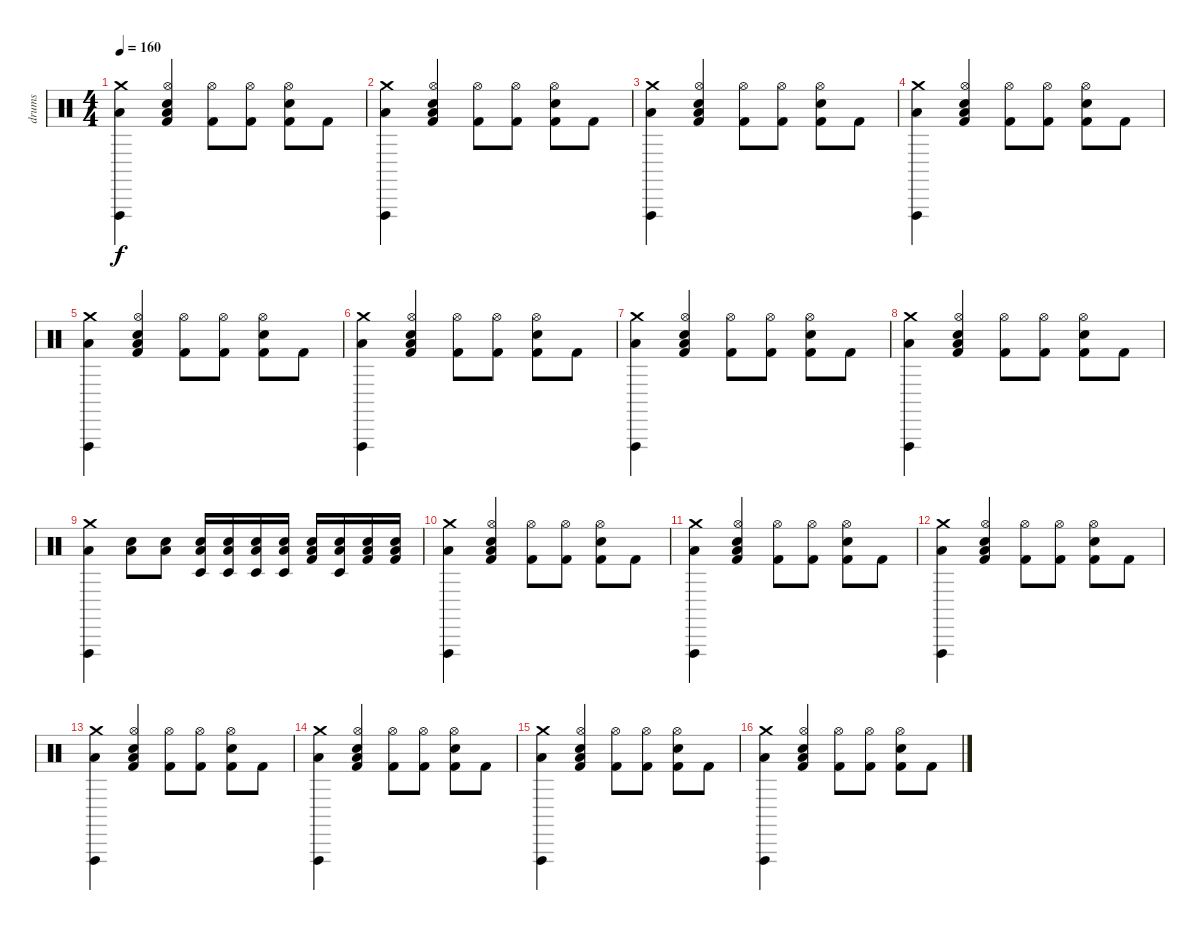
\track ("drums" "drums") {instrument percussion}
\staff {score}
\articulation defaults
\ts (4 4)
\tempo 160
\clef neutral
\ks c
("Crash medium (hit)" "Vibraslap (hit)" "Low Floor Tom (hit)").4{dy f} ("Hi-Hat (open)" "Electric Snare (hit)" "Low Floor Tom (hit)" "Kick (hit) 2").4 ("Hi-Hat (open)" "Kick (hit) 2").8 ("Hi-Hat (open)" "Kick (hit) 2").8 ("Hi-Hat (open)" "Electric Snare (hit)" "Kick (hit) 2").8 "Kick (hit) 2".8 |
("Crash medium (hit)" "Vibraslap (hit)" "Low Floor Tom (hit)").4 ("Hi-Hat (open)" "Electric Snare (hit)" "Low Floor Tom (hit)" "Kick (hit) 2").4 ("Hi-Hat (open)" "Kick (hit) 2").8 ("Hi-Hat (open)" "Kick (hit) 2").8 ("Hi-Hat (open)" "Electric Snare (hit)" "Kick (hit) 2").8 "Kick (hit) 2".8 |
("Crash medium (hit)" "Vibraslap (hit)" "Low Floor Tom (hit)").4 ("Hi-Hat (open)" "Electric Snare (hit)" "Low Floor Tom (hit)" "Kick (hit) 2").4 ("Hi-Hat (open)" "Kick (hit) 2").8 ("Hi-Hat (open)" "Kick (hit) 2").8 ("Hi-Hat (open)" "Electric Snare (hit)" "Kick (hit) 2").8 "Kick (hit) 2".8 |
("Crash medium (hit)" "Vibraslap (hit)" "Low Floor Tom (hit)").4 ("Hi-Hat (open)" "Electric Snare (hit)" "Low Floor Tom (hit)" "Kick (hit) 2").4 ("Hi-Hat (open)" "Kick (hit) 2").8 ("Hi-Hat (open)" "Kick (hit) 2").8 ("Hi-Hat (open)" "Electric Snare (hit)" "Kick (hit) 2").8 "Kick (hit) 2".8 |
("Crash medium (hit)" "Vibraslap (hit)" "Low Floor Tom (hit)").4 ("Hi-Hat (open)" "Electric Snare (hit)" "Low Floor Tom (hit)" "Kick (hit) 2").4 ("Hi-Hat (open)" "Kick (hit) 2").8 ("Hi-Hat (open)" "Kick (hit) 2").8 ("Hi-Hat (open)" "Electric Snare (hit)" "Kick (hit) 2").8 "Kick (hit) 2".8 |
("Crash medium (hit)" "Vibraslap (hit)" "Low Floor Tom (hit)").4 ("Hi-Hat (open)" "Electric Snare (hit)" "Low Floor Tom (hit)" "Kick (hit) 2").4 ("Hi-Hat (open)" "Kick (hit) 2").8 ("Hi-Hat (open)" "Kick (hit) 2").8 ("Hi-Hat (open)" "Electric Snare (hit)" "Kick (hit) 2").8 "Kick (hit) 2".8 |
("Crash medium (hit)" "Vibraslap (hit)" "Low Floor Tom (hit)").4 ("Hi-Hat (open)" "Electric Snare (hit)" "Low Floor Tom (hit)" "Kick (hit) 2").4 ("Hi-Hat (open)" "Kick (hit) 2").8 ("Hi-Hat (open)" "Kick (hit) 2").8 ("Hi-Hat (open)" "Electric Snare (hit)" "Kick (hit) 2").8 "Kick (hit) 2".8 |
("Crash medium (hit)" "Vibraslap (hit)" "Low Floor Tom (hit)").4 ("Hi-Hat (open)" "Electric Snare (hit)" "Low Floor Tom (hit)" "Kick (hit) 2").4 ("Hi-Hat (open)" "Kick (hit) 2").8 ("Hi-Hat (open)" "Kick (hit) 2").8 ("Hi-Hat (open)" "Electric Snare (hit)" "Kick (hit) 2").8 "Kick (hit) 2".8 |
("Crash medium (hit)" "Vibraslap (hit)" "Low Floor Tom (hit)").4 ("Electric Snare (hit)" "Low Floor Tom (hit)").8 ("Electric Snare (hit)" "Low Floor Tom (hit)").8 ("Electric Snare (hit)" "Low Floor Tom (hit)" "Timbale low (hit)").16 ("Electric Snare (hit)" "Low Floor Tom (hit)" "Timbale low (hit)").16 ("Electric Snare (hit)" "Low Floor Tom (hit)" "Timbale low (hit)").16 ("Electric Snare (hit)" "Low Floor Tom (hit)" "Timbale low (hit)").16 ("Electric Snare (hit)" "Low Floor Tom (hit)" "Kick (hit) 2").16 ("Electric Snare (hit)" "Low Floor Tom (hit)" "Timbale low (hit)").16 ("Electric Snare (hit)" "Low Floor Tom (hit)" "Kick (hit) 2").16 ("Electric Snare (hit)" "Low Floor Tom (hit)" "Kick (hit) 2").16 |
("Crash medium (hit)" "Vibraslap (hit)" "Low Floor Tom (hit)").4 ("Hi-Hat (open)" "Electric Snare (hit)" "Low Floor Tom (hit)" "Kick (hit) 2").4 ("Hi-Hat (open)" "Kick (hit) 2").8 ("Hi-Hat (open)" "Kick (hit) 2").8 ("Hi-Hat (open)" "Electric Snare (hit)" "Kick (hit) 2").8 "Kick (hit) 2".8 |
("Crash medium (hit)" "Vibraslap (hit)" "Low Floor Tom (hit)").4 ("Hi-Hat (open)" "Electric Snare (hit)" "Low Floor Tom (hit)" "Kick (hit) 2").4 ("Hi-Hat (open)" "Kick (hit) 2").8 ("Hi-Hat (open)" "Kick (hit) 2").8 ("Hi-Hat (open)" "Electric Snare (hit)" "Kick (hit) 2").8 "Kick (hit) 2".8 |
("Crash medium (hit)" "Vibraslap (hit)" "Low Floor Tom (hit)").4 ("Hi-Hat (open)" "Electric Snare (hit)" "Low Floor Tom (hit)" "Kick (hit) 2").4 ("Hi-Hat (open)" "Kick (hit) 2").8 ("Hi-Hat (open)" "Kick (hit) 2").8 ("Hi-Hat (open)" "Electric Snare (hit)" "Kick (hit) 2").8 "Kick (hit) 2".8 |
("Crash medium (hit)" "Vibraslap (hit)" "Low Floor Tom (hit)").4 ("Hi-Hat (open)" "Electric Snare (hit)" "Low Floor Tom (hit)" "Kick (hit) 2").4 ("Hi-Hat (open)" "Kick (hit) 2").8 ("Hi-Hat (open)" "Kick (hit) 2").8 ("Hi-Hat (open)" "Electric Snare (hit)" "Kick (hit) 2").8 "Kick (hit) 2".8 |
("Crash medium (hit)" "Vibraslap (hit)" "Low Floor Tom (hit)").4 ("Hi-Hat (open)" "Electric Snare (hit)" "Low Floor Tom (hit)" "Kick (hit) 2").4 ("Hi-Hat (open)" "Kick (hit) 2").8 ("Hi-Hat (open)" "Kick (hit) 2").8 ("Hi-Hat (open)" "Electric Snare (hit)" "Kick (hit) 2").8 "Kick (hit) 2".8 |
("Crash medium (hit)" "Vibraslap (hit)" "Low Floor Tom (hit)").4 ("Hi-Hat (open)" "Electric Snare (hit)" "Low Floor Tom (hit)" "Kick (hit) 2").4 ("Hi-Hat (open)" "Kick (hit) 2").8 ("Hi-Hat (open)" "Kick (hit) 2").8 ("Hi-Hat (open)" "Electric Snare (hit)" "Kick (hit) 2").8 "Kick (hit) 2".8 |
("Crash medium (hit)" "Vibraslap (hit)" "Low Floor Tom (hit)").4 ("Hi-Hat (open)" "Electric Snare (hit)" "Low Floor Tom (hit)" "Kick (hit) 2").4 ("Hi-Hat (open)" "Kick (hit) 2").8 ("Hi-Hat (open)" "Kick (hit) 2").8 ("Hi-Hat (open)" "Electric Snare (hit)" "Kick (hit) 2").8 "Kick (hit) 2".8
